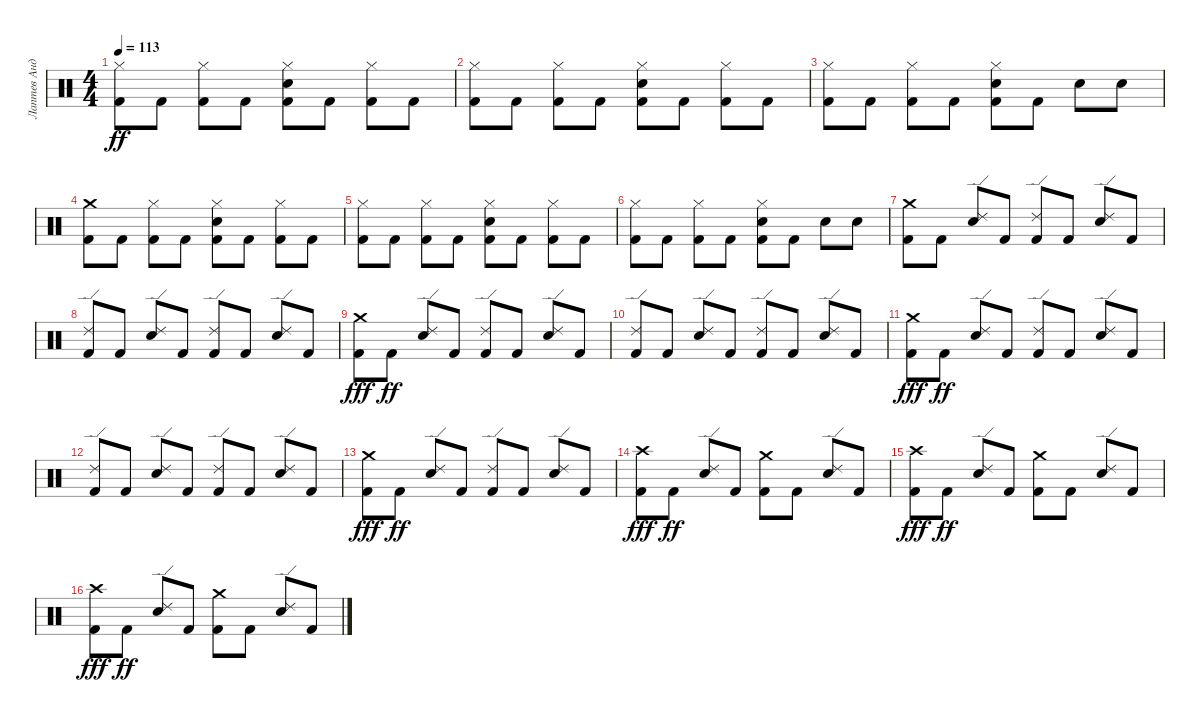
\track ("Лаптев Андрей" "Лаптев Анд") {instrument percussion}
\staff {score}
\articulation defaults
\ts (4 4)
\tempo 113
\clef neutral
\ks c
("Hi-Hat (closed)" "Kick (hit) 2").8{dy ff} "Kick (hit) 2".8 ("Kick (hit) 2" "Hi-Hat (closed)").8 "Kick (hit) 2".8 ("Electric Snare (hit)" "Kick (hit) 2" "Hi-Hat (closed)").8 "Kick (hit) 2".8 ("Hi-Hat (closed)" "Kick (hit) 2").8 "Kick (hit) 2".8 |
("Kick (hit) 2" "Hi-Hat (closed)").8 "Kick (hit) 2".8 ("Kick (hit) 2" "Hi-Hat (closed)").8 "Kick (hit) 2".8 ("Electric Snare (hit)" "Kick (hit) 2" "Hi-Hat (closed)").8 "Kick (hit) 2".8 ("Kick (hit) 2" "Hi-Hat (closed)").8 "Kick (hit) 2".8 |
("Kick (hit) 2" "Hi-Hat (closed)").8 "Kick (hit) 2".8 ("Kick (hit) 2" "Hi-Hat (closed)").8 "Kick (hit) 2".8 ("Hi-Hat (closed)" "Electric Snare (hit)" "Kick (hit) 2").8 "Kick (hit) 2".8 "Electric Snare (hit)".8 "Electric Snare (hit)".8 |
("Crash medium (hit)" "Kick (hit) 2").8 "Kick (hit) 2".8 ("Hi-Hat (closed)" "Kick (hit) 2").8 "Kick (hit) 2".8 ("Electric Snare (hit)" "Hi-Hat (closed)" "Kick (hit) 2").8 "Kick (hit) 2".8 ("Hi-Hat (closed)" "Kick (hit) 2").8 "Kick (hit) 2".8 |
("Kick (hit) 2" "Hi-Hat (closed)").8 "Kick (hit) 2".8 ("Hi-Hat (closed)" "Kick (hit) 2").8 "Kick (hit) 2".8 ("Electric Snare (hit)" "Hi-Hat (closed)" "Kick (hit) 2").8 "Kick (hit) 2".8 ("Hi-Hat (closed)" "Kick (hit) 2").8 "Kick (hit) 2".8 |
("Kick (hit) 2" "Hi-Hat (closed)").8 "Kick (hit) 2".8 ("Kick (hit) 2" "Hi-Hat (closed)").8 "Kick (hit) 2".8 ("Hi-Hat (closed)" "Kick (hit) 2" "Electric Snare (hit)").8 "Kick (hit) 2".8 "Electric Snare (hit)".8 "Electric Snare (hit)".8 |
("Crash medium (hit)" "Kick (hit) 2").8 "Kick (hit) 2".8 ("Ride (edge) 2" "Electric Snare (hit)").8 "Kick (hit) 2".8 ("Kick (hit) 2" "Ride (edge) 2").8 "Kick (hit) 2".8 ("Ride (edge) 2" "Electric Snare (hit)").8 "Kick (hit) 2".8 |
("Kick (hit) 2" "Ride (edge) 2").8 "Kick (hit) 2".8 ("Electric Snare (hit)" "Ride (edge) 2").8 "Kick (hit) 2".8 ("Kick (hit) 2" "Ride (edge) 2").8 "Kick (hit) 2".8 ("Electric Snare (hit)" "Ride (edge) 2").8 "Kick (hit) 2".8 |
("Kick (hit) 2" "Crash medium (hit)").8{dy fff} "Kick (hit) 2".8{dy ff} ("Ride (edge) 2" "Electric Snare (hit)").8 "Kick (hit) 2".8 ("Kick (hit) 2" "Ride (edge) 2").8 "Kick (hit) 2".8 ("Ride (edge) 2" "Electric Snare (hit)").8 "Kick (hit) 2".8 |
("Kick (hit) 2" "Ride (edge) 2").8 "Kick (hit) 2".8 ("Electric Snare (hit)" "Ride (edge) 2").8 "Kick (hit) 2".8 ("Kick (hit) 2" "Ride (edge) 2").8 "Kick (hit) 2".8 ("Electric Snare (hit)" "Ride (edge) 2").8 "Kick (hit) 2".8 |
("Kick (hit) 2" "Crash medium (hit)").8{dy fff} "Kick (hit) 2".8{dy ff} ("Ride (edge) 2" "Electric Snare (hit)").8 "Kick (hit) 2".8 ("Ride (edge) 2" "Kick (hit) 2").8 "Kick (hit) 2".8 ("Ride (edge) 2" "Electric Snare (hit)").8 "Kick (hit) 2".8 |
("Kick (hit) 2" "Ride (edge) 2").8 "Kick (hit) 2".8 ("Electric Snare (hit)" "Ride (edge) 2").8 "Kick (hit) 2".8 ("Kick (hit) 2" "Ride (edge) 2").8 "Kick (hit) 2".8 ("Electric Snare (hit)" "Ride (edge) 2").8 "Kick (hit) 2".8 |
("Kick (hit) 2" "Crash medium (hit)").8{dy fff} "Kick (hit) 2".8{dy ff} ("Ride (edge) 2" "Electric Snare (hit)").8 "Kick (hit) 2".8 ("Ride (edge) 2" "Kick (hit) 2").8 "Kick (hit) 2".8 ("Electric Snare (hit)" "Ride (edge) 2").8 "Kick (hit) 2".8 |
("Kick (hit) 2" "Crash high (hit)").8{dy fff} "Kick (hit) 2".8{dy ff} ("Ride (edge) 2" "Electric Snare (hit)").8 "Kick (hit) 2".8 ("Crash medium (hit)" "Kick (hit) 2").8 "Kick (hit) 2".8 ("Electric Snare (hit)" "Ride (edge) 2").8 "Kick (hit) 2".8 |
("Kick (hit) 2" "Crash high (hit)").8{dy fff} "Kick (hit) 2".8{dy ff} ("Ride (edge) 2" "Electric Snare (hit)").8 "Kick (hit) 2".8 ("Crash medium (hit)" "Kick (hit) 2").8 "Kick (hit) 2".8 ("Electric Snare (hit)" "Ride (edge) 2").8 "Kick (hit) 2".8 |
("Kick (hit) 2" "Crash high (hit)").8{dy fff} "Kick (hit) 2".8{dy ff} ("Ride (edge) 2" "Electric Snare (hit)").8 "Kick (hit) 2".8 ("Crash medium (hit)" "Kick (hit) 2").8 "Kick (hit) 2".8 ("Electric Snare (hit)" "Ride (edge) 2").8 "Kick (hit) 2".8
